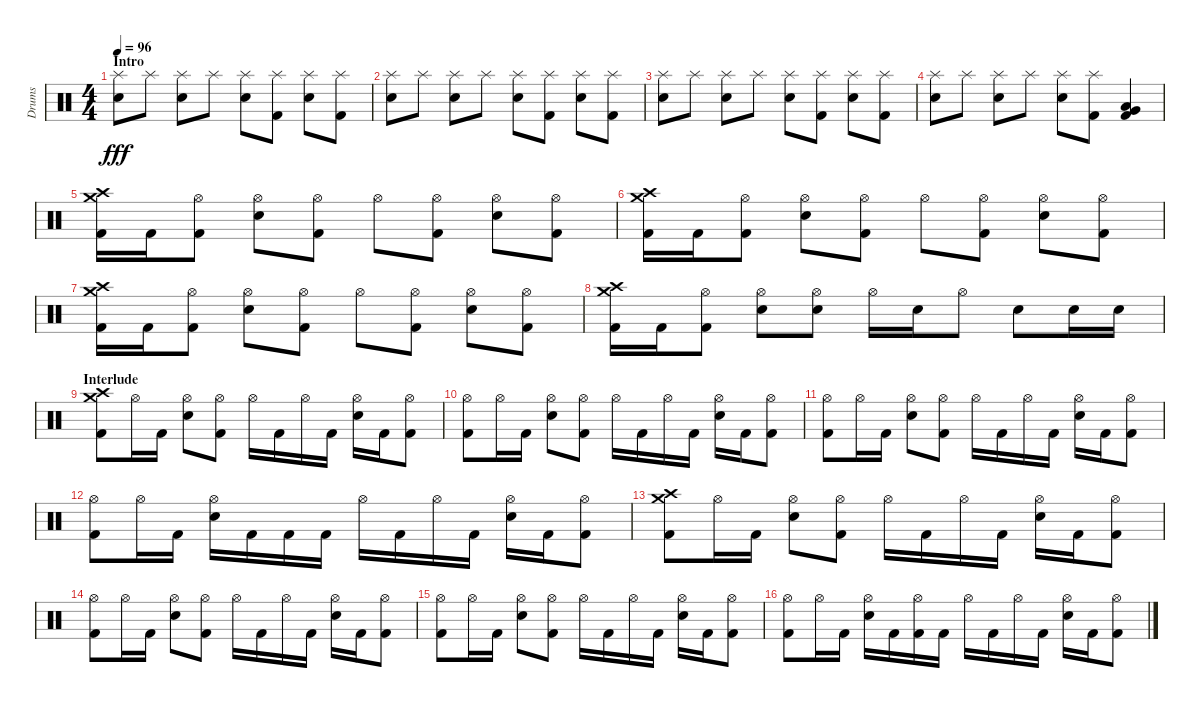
\track ("Drums" "Drums") {instrument percussion}
\staff {score}
\articulation defaults
\ts (4 4)
\section ("" "Intro")
\tempo 96
\clef neutral
\ks c
("Splash (hit)" "Electric Snare (hit)").8{dy fff} "Splash (hit)".8 ("Splash (hit)" "Electric Snare (hit)").8 "Splash (hit)".8 ("Splash (hit)" "Electric Snare (hit)").8 ("Splash (hit)" "Kick (hit) 2").8 ("Splash (hit)" "Electric Snare (hit)").8 ("Splash (hit)" "Kick (hit) 2").8 |
("Splash (hit)" "Electric Snare (hit)").8 "Splash (hit)".8 ("Splash (hit)" "Electric Snare (hit)").8 "Splash (hit)".8 ("Splash (hit)" "Electric Snare (hit)").8 ("Splash (hit)" "Kick (hit) 2").8 ("Splash (hit)" "Electric Snare (hit)").8 ("Splash (hit)" "Kick (hit) 2").8 |
("Splash (hit)" "Electric Snare (hit)").8 "Splash (hit)".8 ("Splash (hit)" "Electric Snare (hit)").8 "Splash (hit)".8 ("Splash (hit)" "Electric Snare (hit)").8 ("Splash (hit)" "Kick (hit) 2").8 ("Splash (hit)" "Electric Snare (hit)").8 ("Splash (hit)" "Kick (hit) 2").8 |
("Splash (hit)" "Electric Snare (hit)").8 "Splash (hit)".8 ("Splash (hit)" "Electric Snare (hit)").8 "Splash (hit)".8 ("Splash (hit)" "Electric Snare (hit)").8 ("Splash (hit)" "Kick (hit) 2").8 ("Low Tom (hit)" "Very Low Tom (hit)" "Kick (hit) 2").4 |
("Crash high (hit)" "Crash medium (hit)" "Kick (hit) 2").16 "Kick (hit) 2".16 ("Hi-Hat (open)" "Kick (hit) 2").8 ("Hi-Hat (open)" "Electric Snare (hit)").8 ("Hi-Hat (open)" "Kick (hit) 2").8 "Hi-Hat (open)".8 ("Hi-Hat (open)" "Kick (hit) 2").8 ("Hi-Hat (open)" "Electric Snare (hit)").8 ("Hi-Hat (open)" "Kick (hit) 2").8 |
("Crash high (hit)" "Crash medium (hit)" "Kick (hit) 2").16 "Kick (hit) 2".16 ("Hi-Hat (open)" "Kick (hit) 2").8 ("Hi-Hat (open)" "Electric Snare (hit)").8 ("Hi-Hat (open)" "Kick (hit) 2").8 "Hi-Hat (open)".8 ("Hi-Hat (open)" "Kick (hit) 2").8 ("Hi-Hat (open)" "Electric Snare (hit)").8 ("Hi-Hat (open)" "Kick (hit) 2").8 |
("Crash high (hit)" "Crash medium (hit)" "Kick (hit) 2").16 "Kick (hit) 2".16 ("Hi-Hat (open)" "Kick (hit) 2").8 ("Hi-Hat (open)" "Electric Snare (hit)").8 ("Hi-Hat (open)" "Kick (hit) 2").8 "Hi-Hat (open)".8 ("Hi-Hat (open)" "Kick (hit) 2").8 ("Hi-Hat (open)" "Electric Snare (hit)").8 ("Hi-Hat (open)" "Kick (hit) 2").8 |
("Crash high (hit)" "Crash medium (hit)" "Kick (hit) 2").16 "Kick (hit) 2".16 ("Hi-Hat (open)" "Kick (hit) 2").8 ("Hi-Hat (open)" "Electric Snare (hit)").8 ("Hi-Hat (open)" "Electric Snare (hit)").8 "Hi-Hat (open)".16 "Electric Snare (hit)".16 "Hi-Hat (open)".8 "Electric Snare (hit)".8 "Electric Snare (hit)".16 "Electric Snare (hit)".16 |
\section ("" "Interlude")
("Crash high (hit)" "Crash medium (hit)" "Kick (hit) 2").8 "Hi-Hat (open)".16 "Kick (hit) 2".16 ("Hi-Hat (open)" "Electric Snare (hit)").8 ("Hi-Hat (open)" "Kick (hit) 2").8 "Hi-Hat (open)".16 "Kick (hit) 2".16 "Hi-Hat (open)".16 "Kick (hit) 2".16 ("Hi-Hat (open)" "Electric Snare (hit)").16 "Kick (hit) 2".16 ("Hi-Hat (open)" "Kick (hit) 2").8 |
("Hi-Hat (open)" "Kick (hit) 2").8 "Hi-Hat (open)".16 "Kick (hit) 2".16 ("Hi-Hat (open)" "Electric Snare (hit)").8 ("Hi-Hat (open)" "Kick (hit) 2").8 "Hi-Hat (open)".16 "Kick (hit) 2".16 "Hi-Hat (open)".16 "Kick (hit) 2".16 ("Hi-Hat (open)" "Electric Snare (hit)").16 "Kick (hit) 2".16 ("Hi-Hat (open)" "Kick (hit) 2").8 |
("Hi-Hat (open)" "Kick (hit) 2").8 "Hi-Hat (open)".16 "Kick (hit) 2".16 ("Hi-Hat (open)" "Electric Snare (hit)").8 ("Hi-Hat (open)" "Kick (hit) 2").8 "Hi-Hat (open)".16 "Kick (hit) 2".16 "Hi-Hat (open)".16 "Kick (hit) 2".16 ("Hi-Hat (open)" "Electric Snare (hit)").16 "Kick (hit) 2".16 ("Hi-Hat (open)" "Kick (hit) 2").8 |
("Hi-Hat (open)" "Kick (hit) 2").8 "Hi-Hat (open)".16 "Kick (hit) 2".16 ("Hi-Hat (open)" "Electric Snare (hit)").16 "Kick (hit) 2".16 "Kick (hit) 2".16 "Kick (hit) 2".16 "Hi-Hat (open)".16 "Kick (hit) 2".16 "Hi-Hat (open)".16 "Kick (hit) 2".16 ("Hi-Hat (open)" "Electric Snare (hit)").16 "Kick (hit) 2".16 ("Hi-Hat (open)" "Kick (hit) 2").8 |
("Crash high (hit)" "Crash medium (hit)" "Kick (hit) 2").8 "Hi-Hat (open)".16 "Kick (hit) 2".16 ("Hi-Hat (open)" "Electric Snare (hit)").8 ("Hi-Hat (open)" "Kick (hit) 2").8 "Hi-Hat (open)".16 "Kick (hit) 2".16 "Hi-Hat (open)".16 "Kick (hit) 2".16 ("Hi-Hat (open)" "Electric Snare (hit)").16 "Kick (hit) 2".16 ("Hi-Hat (open)" "Kick (hit) 2").8 |
("Hi-Hat (open)" "Kick (hit) 2").8 "Hi-Hat (open)".16 "Kick (hit) 2".16 ("Hi-Hat (open)" "Electric Snare (hit)").8 ("Hi-Hat (open)" "Kick (hit) 2").8 "Hi-Hat (open)".16 "Kick (hit) 2".16 "Hi-Hat (open)".16 "Kick (hit) 2".16 ("Hi-Hat (open)" "Electric Snare (hit)").16 "Kick (hit) 2".16 ("Hi-Hat (open)" "Kick (hit) 2").8 |
("Hi-Hat (open)" "Kick (hit) 2").8 "Hi-Hat (open)".16 "Kick (hit) 2".16 ("Hi-Hat (open)" "Electric Snare (hit)").8 ("Hi-Hat (open)" "Kick (hit) 2").8 "Hi-Hat (open)".16 "Kick (hit) 2".16 "Hi-Hat (open)".16 "Kick (hit) 2".16 ("Hi-Hat (open)" "Electric Snare (hit)").16 "Kick (hit) 2".16 ("Hi-Hat (open)" "Kick (hit) 2").8 |
("Hi-Hat (open)" "Kick (hit) 2").8 "Hi-Hat (open)".16 "Kick (hit) 2".16 ("Hi-Hat (open)" "Electric Snare (hit)").16 "Kick (hit) 2".16 ("Hi-Hat (open)" "Kick (hit) 2").16 "Kick (hit) 2".16 "Hi-Hat (open)".16 "Kick (hit) 2".16 "Hi-Hat (open)".16 "Kick (hit) 2".16 ("Hi-Hat (open)" "Electric Snare (hit)").16 "Kick (hit) 2".16 ("Hi-Hat (open)" "Kick (hit) 2").8
